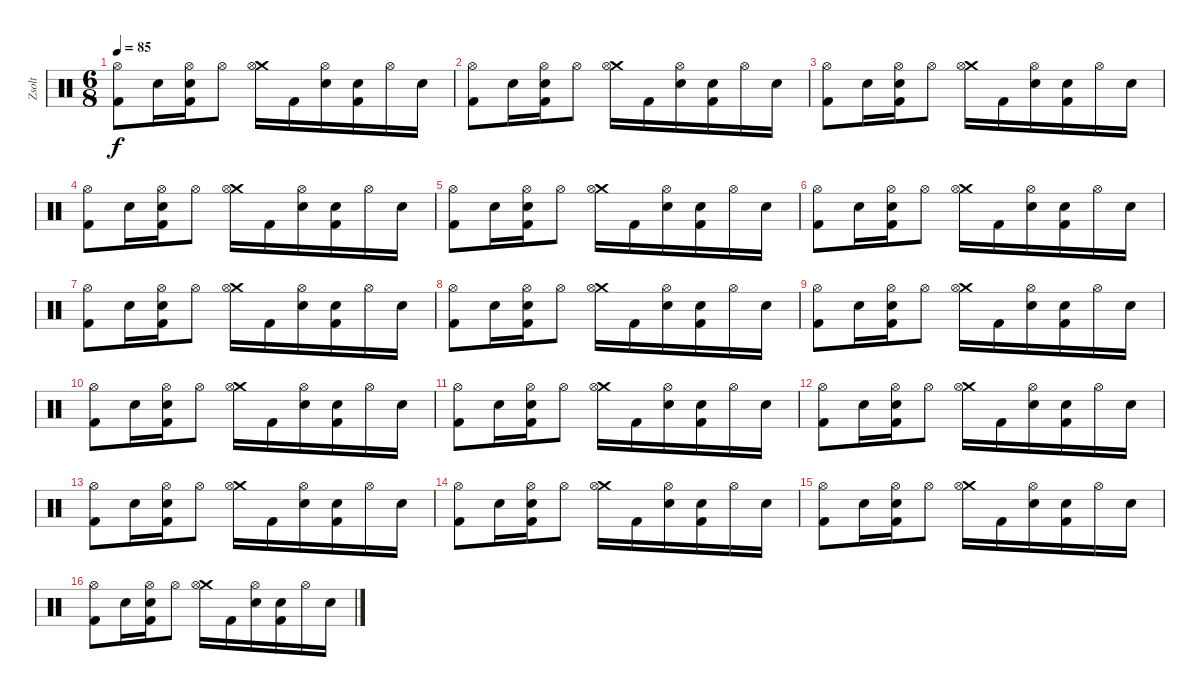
\track ("Zsolt" "Zsolt") {instrument percussion}
\staff {score}
\articulation defaults
\ts (6 8)
\tempo 85
\clef neutral
\ks c
("Hi-Hat (open)" "Kick (hit) 2").8{dy f} "Snare (hit) 2".16 ("Hi-Hat (open)" "Snare (hit) 2" "Kick (hit) 2").16 "Hi-Hat (open)".8 ("Crash medium (hit)" "Hi-Hat (open)").16 "Kick (hit) 2".16 ("Hi-Hat (open)" "Snare (hit) 2").16 ("Snare (hit) 2" "Kick (hit) 2").16 "Hi-Hat (open)".16 "Snare (hit) 2".16 |
("Hi-Hat (open)" "Kick (hit) 2").8 "Snare (hit) 2".16 ("Hi-Hat (open)" "Snare (hit) 2" "Kick (hit) 2").16 "Hi-Hat (open)".8 ("Crash medium (hit)" "Hi-Hat (open)").16 "Kick (hit) 2".16 ("Hi-Hat (open)" "Snare (hit) 2").16 ("Snare (hit) 2" "Kick (hit) 2").16 "Hi-Hat (open)".16 "Snare (hit) 2".16 |
("Hi-Hat (open)" "Kick (hit) 2").8 "Snare (hit) 2".16 ("Hi-Hat (open)" "Snare (hit) 2" "Kick (hit) 2").16 "Hi-Hat (open)".8 ("Crash medium (hit)" "Hi-Hat (open)").16 "Kick (hit) 2".16 ("Hi-Hat (open)" "Snare (hit) 2").16 ("Snare (hit) 2" "Kick (hit) 2").16 "Hi-Hat (open)".16 "Snare (hit) 2".16 |
("Hi-Hat (open)" "Kick (hit) 2").8 "Snare (hit) 2".16 ("Hi-Hat (open)" "Snare (hit) 2" "Kick (hit) 2").16 "Hi-Hat (open)".8 ("Crash medium (hit)" "Hi-Hat (open)").16 "Kick (hit) 2".16 ("Hi-Hat (open)" "Snare (hit) 2").16 ("Snare (hit) 2" "Kick (hit) 2").16 "Hi-Hat (open)".16 "Snare (hit) 2".16 |
("Hi-Hat (open)" "Kick (hit) 2").8 "Snare (hit) 2".16 ("Hi-Hat (open)" "Snare (hit) 2" "Kick (hit) 2").16 "Hi-Hat (open)".8 ("Crash medium (hit)" "Hi-Hat (open)").16 "Kick (hit) 2".16 ("Hi-Hat (open)" "Snare (hit) 2").16 ("Snare (hit) 2" "Kick (hit) 2").16 "Hi-Hat (open)".16 "Snare (hit) 2".16 |
("Hi-Hat (open)" "Kick (hit) 2").8 "Snare (hit) 2".16 ("Hi-Hat (open)" "Snare (hit) 2" "Kick (hit) 2").16 "Hi-Hat (open)".8 ("Crash medium (hit)" "Hi-Hat (open)").16 "Kick (hit) 2".16 ("Hi-Hat (open)" "Snare (hit) 2").16 ("Snare (hit) 2" "Kick (hit) 2").16 "Hi-Hat (open)".16 "Snare (hit) 2".16 |
("Hi-Hat (open)" "Kick (hit) 2").8 "Snare (hit) 2".16 ("Hi-Hat (open)" "Snare (hit) 2" "Kick (hit) 2").16 "Hi-Hat (open)".8 ("Crash medium (hit)" "Hi-Hat (open)").16 "Kick (hit) 2".16 ("Hi-Hat (open)" "Snare (hit) 2").16 ("Snare (hit) 2" "Kick (hit) 2").16 "Hi-Hat (open)".16 "Snare (hit) 2".16 |
("Hi-Hat (open)" "Kick (hit) 2").8 "Snare (hit) 2".16 ("Hi-Hat (open)" "Snare (hit) 2" "Kick (hit) 2").16 "Hi-Hat (open)".8 ("Crash medium (hit)" "Hi-Hat (open)").16 "Kick (hit) 2".16 ("Hi-Hat (open)" "Snare (hit) 2").16 ("Snare (hit) 2" "Kick (hit) 2").16 "Hi-Hat (open)".16 "Snare (hit) 2".16 |
("Hi-Hat (open)" "Kick (hit) 2").8 "Snare (hit) 2".16 ("Hi-Hat (open)" "Snare (hit) 2" "Kick (hit) 2").16 "Hi-Hat (open)".8 ("Crash medium (hit)" "Hi-Hat (open)").16 "Kick (hit) 2".16 ("Hi-Hat (open)" "Snare (hit) 2").16 ("Snare (hit) 2" "Kick (hit) 2").16 "Hi-Hat (open)".16 "Snare (hit) 2".16 |
("Hi-Hat (open)" "Kick (hit) 2").8 "Snare (hit) 2".16 ("Hi-Hat (open)" "Snare (hit) 2" "Kick (hit) 2").16 "Hi-Hat (open)".8 ("Crash medium (hit)" "Hi-Hat (open)").16 "Kick (hit) 2".16 ("Hi-Hat (open)" "Snare (hit) 2").16 ("Snare (hit) 2" "Kick (hit) 2").16 "Hi-Hat (open)".16 "Snare (hit) 2".16 |
("Hi-Hat (open)" "Kick (hit) 2").8 "Snare (hit) 2".16 ("Hi-Hat (open)" "Snare (hit) 2" "Kick (hit) 2").16 "Hi-Hat (open)".8 ("Crash medium (hit)" "Hi-Hat (open)").16 "Kick (hit) 2".16 ("Hi-Hat (open)" "Snare (hit) 2").16 ("Snare (hit) 2" "Kick (hit) 2").16 "Hi-Hat (open)".16 "Snare (hit) 2".16 |
("Hi-Hat (open)" "Kick (hit) 2").8 "Snare (hit) 2".16 ("Hi-Hat (open)" "Snare (hit) 2" "Kick (hit) 2").16 "Hi-Hat (open)".8 ("Crash medium (hit)" "Hi-Hat (open)").16 "Kick (hit) 2".16 ("Hi-Hat (open)" "Snare (hit) 2").16 ("Snare (hit) 2" "Kick (hit) 2").16 "Hi-Hat (open)".16 "Snare (hit) 2".16 |
("Hi-Hat (open)" "Kick (hit) 2").8 "Snare (hit) 2".16 ("Hi-Hat (open)" "Snare (hit) 2" "Kick (hit) 2").16 "Hi-Hat (open)".8 ("Crash medium (hit)" "Hi-Hat (open)").16 "Kick (hit) 2".16 ("Hi-Hat (open)" "Snare (hit) 2").16 ("Snare (hit) 2" "Kick (hit) 2").16 "Hi-Hat (open)".16 "Snare (hit) 2".16 |
("Hi-Hat (open)" "Kick (hit) 2").8 "Snare (hit) 2".16 ("Hi-Hat (open)" "Snare (hit) 2" "Kick (hit) 2").16 "Hi-Hat (open)".8 ("Crash medium (hit)" "Hi-Hat (open)").16 "Kick (hit) 2".16 ("Hi-Hat (open)" "Snare (hit) 2").16 ("Snare (hit) 2" "Kick (hit) 2").16 "Hi-Hat (open)".16 "Snare (hit) 2".16 |
("Hi-Hat (open)" "Kick (hit) 2").8 "Snare (hit) 2".16 ("Hi-Hat (open)" "Snare (hit) 2" "Kick (hit) 2").16 "Hi-Hat (open)".8 ("Crash medium (hit)" "Hi-Hat (open)").16 "Kick (hit) 2".16 ("Hi-Hat (open)" "Snare (hit) 2").16 ("Snare (hit) 2" "Kick (hit) 2").16 "Hi-Hat (open)".16 "Snare (hit) 2".16 |
("Hi-Hat (open)" "Kick (hit) 2").8 "Snare (hit) 2".16 ("Hi-Hat (open)" "Snare (hit) 2" "Kick (hit) 2").16 "Hi-Hat (open)".8 ("Crash medium (hit)" "Hi-Hat (open)").16 "Kick (hit) 2".16 ("Hi-Hat (open)" "Snare (hit) 2").16 ("Snare (hit) 2" "Kick (hit) 2").16 "Hi-Hat (open)".16 "Snare (hit) 2".16
